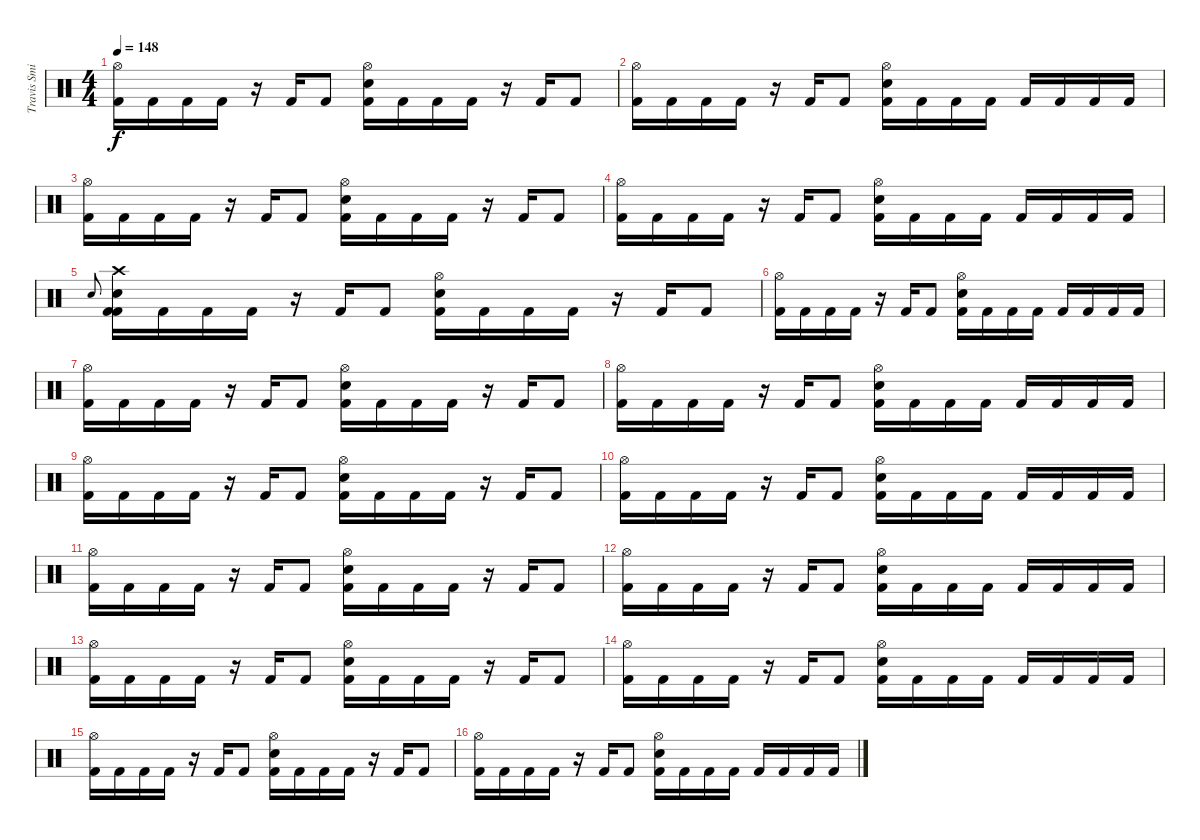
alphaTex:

\track ("Travis Smith" "Travis Smi") {instrument percussion}
\staff {score}
\articulation defaults
\ts (4 4)
\tempo 148
\clef neutral
\ks c
("Hi-Hat (open)" "Kick (hit) 2").16{dy f} "Kick (hit) 2".16 "Kick (hit) 2".16 "Kick (hit) 2".16 r.16 "Kick (hit) 2".16 "Kick (hit) 2".8 ("Hi-Hat (open)" "Snare (hit) 2" "Kick (hit) 2").16 "Kick (hit) 2".16 "Kick (hit) 2".16 "Kick (hit) 2".16 r.16 "Kick (hit) 2".16 "Kick (hit) 2".8 |
("Hi-Hat (open)" "Kick (hit) 2").16 "Kick (hit) 2".16 "Kick (hit) 2".16 "Kick (hit) 2".16 r.16 "Kick (hit) 2".16 "Kick (hit) 2".8 ("Hi-Hat (open)" "Snare (hit) 2" "Kick (hit) 2").16 "Kick (hit) 2".16 "Kick (hit) 2".16 "Kick (hit) 2".16 "Kick (hit) 2".16 "Kick (hit) 2".16 "Kick (hit) 2".16 "Kick (hit) 2".16 |
("Hi-Hat (open)" "Kick (hit) 2").16 "Kick (hit) 2".16 "Kick (hit) 2".16 "Kick (hit) 2".16 r.16 "Kick (hit) 2".16 "Kick (hit) 2".8 ("Hi-Hat (open)" "Snare (hit) 2" "Kick (hit) 2").16 "Kick (hit) 2".16 "Kick (hit) 2".16 "Kick (hit) 2".16 r.16 "Kick (hit) 2".16 "Kick (hit) 2".8 |
("Hi-Hat (open)" "Kick (hit) 2").16 "Kick (hit) 2".16 "Kick (hit) 2".16 "Kick (hit) 2".16 r.16 "Kick (hit) 2".16 "Kick (hit) 2".8 ("Hi-Hat (open)" "Snare (hit) 2" "Kick (hit) 2").16 "Kick (hit) 2".16 "Kick (hit) 2".16 "Kick (hit) 2".16 "Kick (hit) 2".16 "Kick (hit) 2".16 "Kick (hit) 2".16 "Kick (hit) 2".16 |
"Snare (hit) 2".8{gr onbeat} ("Crash high (hit)" "Kick (hit) 2" "Snare (hit) 2" "Kick (hit) 2").16 "Kick (hit) 2".16 "Kick (hit) 2".16 "Kick (hit) 2".16 r.16 "Kick (hit) 2".16 "Kick (hit) 2".8 ("Hi-Hat (open)" "Electric Snare (hit)" "Kick (hit) 2").16 "Kick (hit) 2".16 "Kick (hit) 2".16 "Kick (hit) 2".16 r.16 "Kick (hit) 2".16 "Kick (hit) 2".8 |
("Hi-Hat (open)" "Kick (hit) 2").16 "Kick (hit) 2".16 "Kick (hit) 2".16 "Kick (hit) 2".16 r.16 "Kick (hit) 2".16 "Kick (hit) 2".8 ("Hi-Hat (open)" "Electric Snare (hit)" "Kick (hit) 2").16 "Kick (hit) 2".16 "Kick (hit) 2".16 "Kick (hit) 2".16 "Kick (hit) 2".16 "Kick (hit) 2".16 "Kick (hit) 2".16 "Kick (hit) 2".16 |
("Hi-Hat (open)" "Kick (hit) 2").16 "Kick (hit) 2".16 "Kick (hit) 2".16 "Kick (hit) 2".16 r.16 "Kick (hit) 2".16 "Kick (hit) 2".8 ("Hi-Hat (open)" "Electric Snare (hit)" "Kick (hit) 2").16 "Kick (hit) 2".16 "Kick (hit) 2".16 "Kick (hit) 2".16 r.16 "Kick (hit) 2".16 "Kick (hit) 2".8 |
("Hi-Hat (open)" "Kick (hit) 2").16 "Kick (hit) 2".16 "Kick (hit) 2".16 "Kick (hit) 2".16 r.16 "Kick (hit) 2".16 "Kick (hit) 2".8 ("Hi-Hat (open)" "Electric Snare (hit)" "Kick (hit) 2").16 "Kick (hit) 2".16 "Kick (hit) 2".16 "Kick (hit) 2".16 "Kick (hit) 2".16 "Kick (hit) 2".16 "Kick (hit) 2".16 "Kick (hit) 2".16 |
("Hi-Hat (open)" "Kick (hit) 2").16 "Kick (hit) 2".16 "Kick (hit) 2".16 "Kick (hit) 2".16 r.16 "Kick (hit) 2".16 "Kick (hit) 2".8 ("Hi-Hat (open)" "Electric Snare (hit)" "Kick (hit) 2").16 "Kick (hit) 2".16 "Kick (hit) 2".16 "Kick (hit) 2".16 r.16 "Kick (hit) 2".16 "Kick (hit) 2".8 |
("Hi-Hat (open)" "Kick (hit) 2").16 "Kick (hit) 2".16 "Kick (hit) 2".16 "Kick (hit) 2".16 r.16 "Kick (hit) 2".16 "Kick (hit) 2".8 ("Hi-Hat (open)" "Electric Snare (hit)" "Kick (hit) 2").16 "Kick (hit) 2".16 "Kick (hit) 2".16 "Kick (hit) 2".16 "Kick (hit) 2".16 "Kick (hit) 2".16 "Kick (hit) 2".16 "Kick (hit) 2".16 |
("Hi-Hat (open)" "Kick (hit) 2").16 "Kick (hit) 2".16 "Kick (hit) 2".16 "Kick (hit) 2".16 r.16 "Kick (hit) 2".16 "Kick (hit) 2".8 ("Hi-Hat (open)" "Electric Snare (hit)" "Kick (hit) 2").16 "Kick (hit) 2".16 "Kick (hit) 2".16 "Kick (hit) 2".16 r.16 "Kick (hit) 2".16 "Kick (hit) 2".8 |
("Hi-Hat (open)" "Kick (hit) 2").16 "Kick (hit) 2".16 "Kick (hit) 2".16 "Kick (hit) 2".16 r.16 "Kick (hit) 2".16 "Kick (hit) 2".8 ("Hi-Hat (open)" "Electric Snare (hit)" "Kick (hit) 2").16 "Kick (hit) 2".16 "Kick (hit) 2".16 "Kick (hit) 2".16 "Kick (hit) 2".16 "Kick (hit) 2".16 "Kick (hit) 2".16 "Kick (hit) 2".16 |
("Hi-Hat (open)" "Kick (hit) 2").16 "Kick (hit) 2".16 "Kick (hit) 2".16 "Kick (hit) 2".16 r.16 "Kick (hit) 2".16 "Kick (hit) 2".8 ("Hi-Hat (open)" "Electric Snare (hit)" "Kick (hit) 2").16 "Kick (hit) 2".16 "Kick (hit) 2".16 "Kick (hit) 2".16 r.16 "Kick (hit) 2".16 "Kick (hit) 2".8 |
("Hi-Hat (open)" "Kick (hit) 2").16 "Kick (hit) 2".16 "Kick (hit) 2".16 "Kick (hit) 2".16 r.16 "Kick (hit) 2".16 "Kick (hit) 2".8 ("Hi-Hat (open)" "Electric Snare (hit)" "Kick (hit) 2").16 "Kick (hit) 2".16 "Kick (hit) 2".16 "Kick (hit) 2".16 "Kick (hit) 2".16 "Kick (hit) 2".16 "Kick (hit) 2".16 "Kick (hit) 2".16 |
("Hi-Hat (open)" "Kick (hit) 2").16 "Kick (hit) 2".16 "Kick (hit) 2".16 "Kick (hit) 2".16 r.16 "Kick (hit) 2".16 "Kick (hit) 2".8 ("Hi-Hat (open)" "Electric Snare (hit)" "Kick (hit) 2").16 "Kick (hit) 2".16 "Kick (hit) 2".16 "Kick (hit) 2".16 r.16 "Kick (hit) 2".16 "Kick (hit) 2".8 |
("Hi-Hat (open)" "Kick (hit) 2").16 "Kick (hit) 2".16 "Kick (hit) 2".16 "Kick (hit) 2".16 r.16 "Kick (hit) 2".16 "Kick (hit) 2".8 ("Hi-Hat (open)" "Electric Snare (hit)" "Kick (hit) 2").16 "Kick (hit) 2".16 "Kick (hit) 2".16 "Kick (hit) 2".16 "Kick (hit) 2".16 "Kick (hit) 2".16 "Kick (hit) 2".16 "Kick (hit) 2".16
